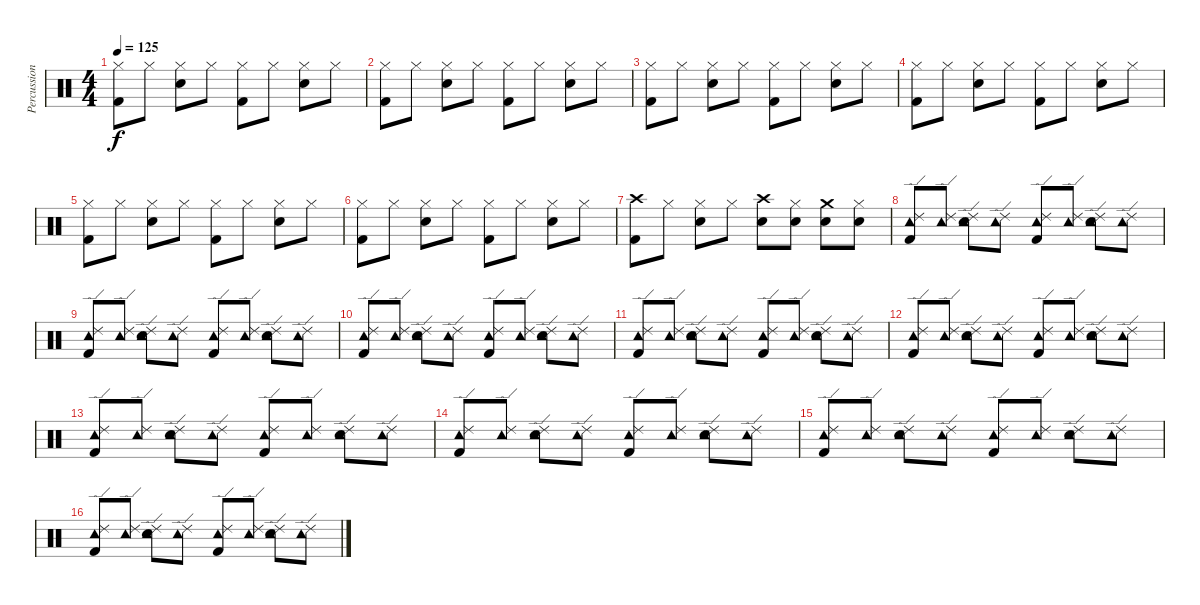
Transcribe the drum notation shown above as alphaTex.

\track ("Percussions" "Percussion") {instrument percussion}
\staff {score}
\articulation defaults
\ts (4 4)
\tempo 125
\clef neutral
\ks c
("Hi-Hat (closed)" "Kick (hit) 2").8{dy f} "Hi-Hat (closed)".8 ("Hi-Hat (closed)" "Snare (hit) 2").8 "Hi-Hat (closed)".8 ("Hi-Hat (closed)" "Kick (hit) 2").8 "Hi-Hat (closed)".8 ("Hi-Hat (closed)" "Snare (hit) 2").8 "Hi-Hat (closed)".8 |
("Hi-Hat (closed)" "Kick (hit) 2").8 "Hi-Hat (closed)".8 ("Hi-Hat (closed)" "Snare (hit) 2").8 "Hi-Hat (closed)".8 ("Hi-Hat (closed)" "Kick (hit) 2").8 "Hi-Hat (closed)".8 ("Hi-Hat (closed)" "Snare (hit) 2").8 "Hi-Hat (closed)".8 |
("Hi-Hat (closed)" "Kick (hit) 2").8 "Hi-Hat (closed)".8 ("Hi-Hat (closed)" "Snare (hit) 2").8 "Hi-Hat (closed)".8 ("Hi-Hat (closed)" "Kick (hit) 2").8 "Hi-Hat (closed)".8 ("Hi-Hat (closed)" "Snare (hit) 2").8 "Hi-Hat (closed)".8 |
("Hi-Hat (closed)" "Kick (hit) 2").8 "Hi-Hat (closed)".8 ("Hi-Hat (closed)" "Snare (hit) 2").8 "Hi-Hat (closed)".8 ("Hi-Hat (closed)" "Kick (hit) 2").8 "Hi-Hat (closed)".8 ("Hi-Hat (closed)" "Snare (hit) 2").8 "Hi-Hat (closed)".8 |
("Hi-Hat (closed)" "Kick (hit) 2").8 "Hi-Hat (closed)".8 ("Hi-Hat (closed)" "Snare (hit) 2").8 "Hi-Hat (closed)".8 ("Hi-Hat (closed)" "Kick (hit) 2").8 "Hi-Hat (closed)".8 ("Hi-Hat (closed)" "Snare (hit) 2").8 "Hi-Hat (closed)".8 |
("Hi-Hat (closed)" "Kick (hit) 2").8 "Hi-Hat (closed)".8 ("Hi-Hat (closed)" "Snare (hit) 2").8 "Hi-Hat (closed)".8 ("Hi-Hat (closed)" "Kick (hit) 2").8 "Hi-Hat (closed)".8 ("Hi-Hat (closed)" "Snare (hit) 2").8 "Hi-Hat (closed)".8 |
("Crash high (hit)" "Kick (hit) 2").8 "Hi-Hat (closed)".8 ("Hi-Hat (closed)" "Snare (hit) 2").8 "Hi-Hat (closed)".8 ("Crash high (hit)" "Snare (hit) 2").8 ("Hi-Hat (closed)" "Snare (hit) 2").8 ("Crash medium (hit)" "Snare (hit) 2").8 ("Hi-Hat (closed)" "Snare (hit) 2").8 |
("Ride (edge) 2" "Kick (hit) 2" "Tambourine (hit)").8 ("Ride (edge) 2" "Tambourine (hit)").8 ("Ride (edge) 2" "Snare (hit) 2" "Tambourine (hit)").8 ("Ride (edge) 2" "Tambourine (hit)").8 ("Ride (edge) 2" "Kick (hit) 2" "Tambourine (hit)").8 ("Ride (edge) 2" "Tambourine (hit)").8 ("Ride (edge) 2" "Snare (hit) 2" "Tambourine (hit)").8 ("Ride (edge) 2" "Tambourine (hit)").8 |
("Ride (edge) 2" "Kick (hit) 2" "Tambourine (hit)").8 ("Ride (edge) 2" "Tambourine (hit)").8 ("Ride (edge) 2" "Snare (hit) 2" "Tambourine (hit)").8 ("Ride (edge) 2" "Tambourine (hit)").8 ("Ride (edge) 2" "Kick (hit) 2" "Tambourine (hit)").8 ("Ride (edge) 2" "Tambourine (hit)").8 ("Ride (edge) 2" "Snare (hit) 2" "Tambourine (hit)").8 ("Ride (edge) 2" "Tambourine (hit)").8 |
("Ride (edge) 2" "Kick (hit) 2" "Tambourine (hit)").8 ("Ride (edge) 2" "Tambourine (hit)").8 ("Ride (edge) 2" "Snare (hit) 2" "Tambourine (hit)").8 ("Ride (edge) 2" "Tambourine (hit)").8 ("Ride (edge) 2" "Kick (hit) 2" "Tambourine (hit)").8 ("Ride (edge) 2" "Tambourine (hit)").8 ("Ride (edge) 2" "Snare (hit) 2" "Tambourine (hit)").8 ("Ride (edge) 2" "Tambourine (hit)").8 |
("Ride (edge) 2" "Kick (hit) 2" "Tambourine (hit)").8 ("Ride (edge) 2" "Tambourine (hit)").8 ("Ride (edge) 2" "Snare (hit) 2" "Tambourine (hit)").8 ("Ride (edge) 2" "Tambourine (hit)").8 ("Ride (edge) 2" "Kick (hit) 2" "Tambourine (hit)").8 ("Ride (edge) 2" "Tambourine (hit)").8 ("Ride (edge) 2" "Snare (hit) 2" "Tambourine (hit)").8 ("Ride (edge) 2" "Tambourine (hit)").8 |
("Ride (edge) 2" "Kick (hit) 2" "Tambourine (hit)").8 ("Ride (edge) 2" "Tambourine (hit)").8 ("Ride (edge) 2" "Snare (hit) 2" "Tambourine (hit)").8 ("Ride (edge) 2" "Tambourine (hit)").8 ("Ride (edge) 2" "Kick (hit) 2" "Tambourine (hit)").8 ("Ride (edge) 2" "Tambourine (hit)").8 ("Ride (edge) 2" "Snare (hit) 2" "Tambourine (hit)").8 ("Ride (edge) 2" "Tambourine (hit)").8 |
("Ride (edge) 2" "Kick (hit) 2" "Tambourine (hit)").8 ("Ride (edge) 2" "Tambourine (hit)").8 ("Ride (edge) 2" "Snare (hit) 2" "Tambourine (hit)").8 ("Ride (edge) 2" "Tambourine (hit)").8 ("Ride (edge) 2" "Kick (hit) 2" "Tambourine (hit)").8 ("Ride (edge) 2" "Tambourine (hit)").8 ("Ride (edge) 2" "Snare (hit) 2" "Tambourine (hit)").8 ("Ride (edge) 2" "Tambourine (hit)").8 |
("Ride (edge) 2" "Kick (hit) 2" "Tambourine (hit)").8 ("Ride (edge) 2" "Tambourine (hit)").8 ("Ride (edge) 2" "Snare (hit) 2" "Tambourine (hit)").8 ("Ride (edge) 2" "Tambourine (hit)").8 ("Ride (edge) 2" "Kick (hit) 2" "Tambourine (hit)").8 ("Ride (edge) 2" "Tambourine (hit)").8 ("Ride (edge) 2" "Snare (hit) 2" "Tambourine (hit)").8 ("Ride (edge) 2" "Tambourine (hit)").8 |
("Ride (edge) 2" "Kick (hit) 2" "Tambourine (hit)").8 ("Ride (edge) 2" "Tambourine (hit)").8 ("Ride (edge) 2" "Snare (hit) 2" "Tambourine (hit)").8 ("Ride (edge) 2" "Tambourine (hit)").8 ("Ride (edge) 2" "Kick (hit) 2" "Tambourine (hit)").8 ("Ride (edge) 2" "Tambourine (hit)").8 ("Ride (edge) 2" "Snare (hit) 2" "Tambourine (hit)").8 ("Ride (edge) 2" "Tambourine (hit)").8 |
("Ride (edge) 2" "Kick (hit) 2" "Tambourine (hit)").8 ("Ride (edge) 2" "Tambourine (hit)").8 ("Ride (edge) 2" "Snare (hit) 2" "Tambourine (hit)").8 ("Ride (edge) 2" "Tambourine (hit)").8 ("Ride (edge) 2" "Kick (hit) 2" "Tambourine (hit)").8 ("Ride (edge) 2" "Tambourine (hit)").8 ("Ride (edge) 2" "Snare (hit) 2" "Tambourine (hit)").8 ("Ride (edge) 2" "Tambourine (hit)").8
